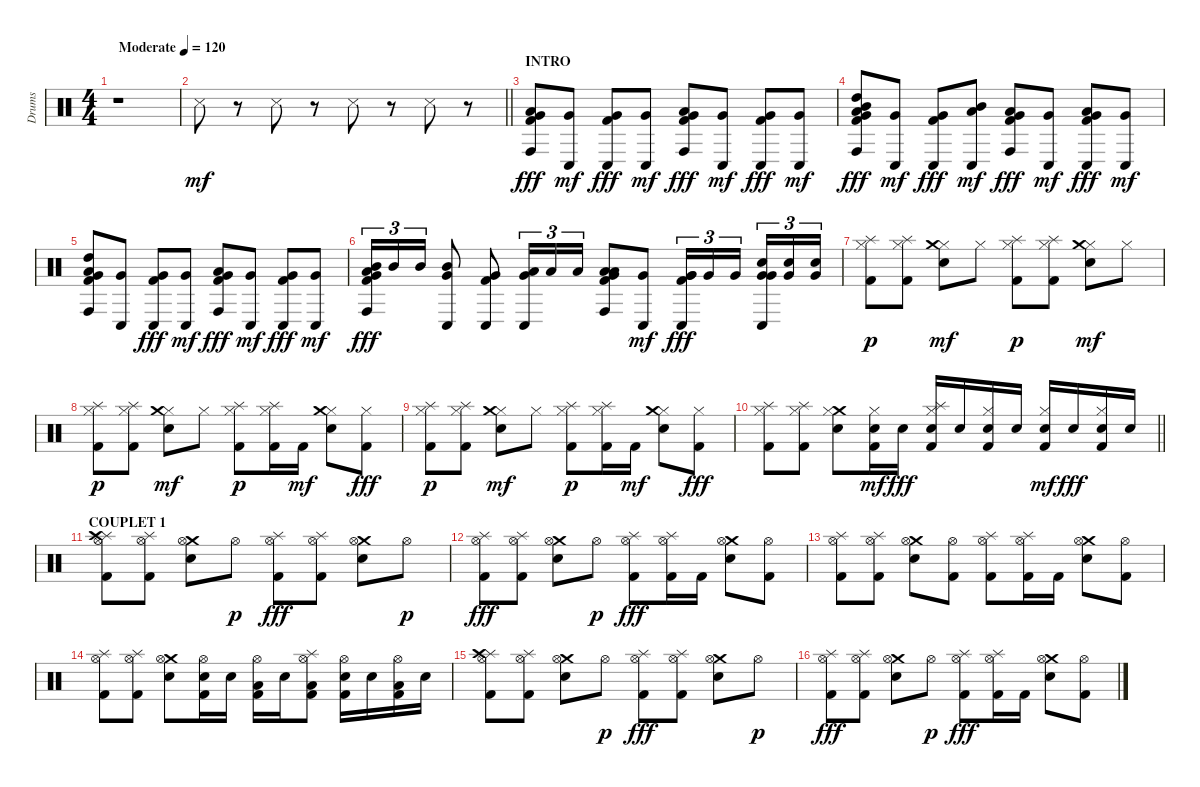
\track ("Drums" "Drums") {instrument percussion}
\staff {score}
\articulation defaults
\ts (4 4)
\tempo (120 "Moderate")
\clef neutral
\ks c
r.1{dy mf} |
\barLineRight lightlight "Snare (side stick) 3".8
r.8 "Snare (side stick) 3".8 r.8 "Snare (side stick) 3".8 r.8 "Snare (side stick) 3".8 r.8 |
\section ("" "INTRO")
("Conga high (hit)" "Kick (hit) 2" "Very Low Tom (hit)" "Low Floor Tom (hit)").8{dy fff} ("Conga low (hit)" "Very Low Tom (hit)").8{dy mf} ("Conga low (hit)" "Kick (hit) 2" "Very Low Tom (hit)").8{dy fff} ("Conga low (hit)" "Very Low Tom (hit)").8{dy mf} ("Conga high (hit)" "Kick (hit) 2" "Very Low Tom (hit)" "Low Floor Tom (hit)").8{dy fff} ("Conga low (hit)" "Very Low Tom (hit)").8{dy mf} ("Conga low (hit)" "Kick (hit) 2" "Very Low Tom (hit)").8{dy fff} ("Conga low (hit)" "Very Low Tom (hit)").8{dy mf} |
("Conga high (hit)" "Kick (hit) 2" "Mid Tom (hit)" "High Tom (hit)" "Very Low Tom (hit)" "Low Floor Tom (hit)").8{dy fff} ("Conga low (hit)" "Very Low Tom (hit)").8{dy mf} ("Conga low (hit)" "Kick (hit) 2" "Very Low Tom (hit)").8{dy fff} ("Mid Tom (hit)" "Low Tom (hit)" "Conga low (hit)").8{dy mf} ("Conga high (hit)" "Kick (hit) 2" "Very Low Tom (hit)" "Low Floor Tom (hit)").8{dy fff} ("Conga low (hit)" "Very Low Tom (hit)").8{dy mf} ("Low Tom (hit)" "Very Low Tom (hit)" "Conga low (hit)" "Kick (hit) 2").8{dy fff} ("Conga low (hit)" "Very Low Tom (hit)").8{dy mf} |
("Conga high (hit)" "Kick (hit) 2" "High Tom (hit)" "Very Low Tom (hit)" "Low Floor Tom (hit)").8 ("Conga low (hit)" "Very Low Tom (hit)").8 ("Conga low (hit)" "Kick (hit) 2" "Very Low Tom (hit)").8{dy fff} ("Conga low (hit)" "Very Low Tom (hit)").8{dy mf} ("Conga high (hit)" "Kick (hit) 2" "Very Low Tom (hit)" "Low Floor Tom (hit)").8{dy fff} ("Conga low (hit)" "Very Low Tom (hit)").8{dy mf} ("Conga low (hit)" "Kick (hit) 2" "Very Low Tom (hit)").8{dy fff} ("Conga low (hit)" "Very Low Tom (hit)").8{dy mf} |
("Conga high (hit)" "Kick (hit) 2" "Mid Tom (hit)" "Very Low Tom (hit)" "Low Floor Tom (hit)").16{tu (3 2) dy fff} "Mid Tom (hit)".16{tu (3 2)} "Mid Tom (hit)".16{tu (3 2)} ("Conga low (hit)" "Mid Tom (hit)" "Very Low Tom (hit)").8 ("Conga low (hit)" "Kick (hit) 2" "Very Low Tom (hit)").8 ("Conga low (hit)" "Low Tom (hit)" "Very Low Tom (hit)").16{tu (3 2)} "Low Tom (hit)".16{tu (3 2)} "Low Tom (hit)".16{tu (3 2)} ("Conga high (hit)" "Kick (hit) 2" "Low Tom (hit)" "Very Low Tom (hit)" "Low Floor Tom (hit)").8 ("Conga low (hit)" "Very Low Tom (hit)").8{dy mf} ("Conga low (hit)" "Kick (hit) 2" "Very Low Tom (hit)" "Very Low Tom (hit)").16{tu (3 2) dy fff} "Very Low Tom (hit)".16{tu (3 2)} "Very Low Tom (hit)".16{tu (3 2) beam splitsecondary} ("Conga low (hit)" "Electric Snare (hit)" "Very Low Tom (hit)" "Very Low Tom (hit)").16{tu (3 2)} ("Electric Snare (hit)" "Very Low Tom (hit)").16{tu (3 2)} ("Electric Snare (hit)" "Very Low Tom (hit)").16{tu (3 2)} |
("Hi-Hat (closed)" "Kick (hit) 2" "Splash (hit)").8{dy p} ("Hi-Hat (closed)" "Kick (hit) 2" "Splash (hit)").8 ("Hi-Hat (closed)" "Snare (hit) 2" "Crash medium (hit)").8{dy mf} "Hi-Hat (closed)".8 ("Hi-Hat (closed)" "Kick (hit) 2" "Splash (hit)").8{dy p} ("Hi-Hat (closed)" "Kick (hit) 2" "Splash (hit)").8 ("Hi-Hat (closed)" "Snare (hit) 2" "Crash medium (hit)").8{dy mf} "Hi-Hat (closed)".8 |
("Hi-Hat (closed)" "Kick (hit) 2" "Splash (hit)").8{dy p} ("Hi-Hat (closed)" "Kick (hit) 2" "Splash (hit)").8 ("Hi-Hat (closed)" "Snare (hit) 2" "Crash medium (hit)").8{dy mf} "Hi-Hat (closed)".8 ("Hi-Hat (closed)" "Kick (hit) 2" "Splash (hit)").8{dy p} ("Hi-Hat (closed)" "Kick (hit) 2" "Splash (hit)").16 "Kick (hit) 2".16{dy mf} ("Hi-Hat (closed)" "Snare (hit) 2" "Crash medium (hit)").8 ("Hi-Hat (closed)" "Kick (hit) 2").8{dy fff} |
("Hi-Hat (closed)" "Kick (hit) 2" "Splash (hit)").8{dy p} ("Hi-Hat (closed)" "Kick (hit) 2" "Splash (hit)").8 ("Hi-Hat (closed)" "Snare (hit) 2" "Crash medium (hit)").8{dy mf} "Hi-Hat (closed)".8 ("Hi-Hat (closed)" "Kick (hit) 2" "Splash (hit)").8{dy p} ("Hi-Hat (closed)" "Kick (hit) 2" "Splash (hit)").16 "Kick (hit) 2".16{dy mf} ("Hi-Hat (closed)" "Snare (hit) 2" "Crash medium (hit)").8 ("Hi-Hat (closed)" "Kick (hit) 2").8{dy fff} |
\barLineRight lightlight
("Splash (hit)" "Hi-Hat (closed)" "Kick (hit) 2").8 ("Splash (hit)" "Hi-Hat (closed)" "Kick (hit) 2").8 ("Crash medium (hit)" "Hi-Hat (closed)" "Snare (hit) 2").8 ("Snare (hit) 2" "Kick (hit) 2" "Hi-Hat (closed)").16{dy mf} "Snare (hit) 2".16{dy fff} ("Splash (hit)" "Snare (hit) 2" "Hi-Hat (closed)" "Kick (hit) 2").16 "Snare (hit) 2".16 ("Snare (hit) 2" "Hi-Hat (closed)" "Kick (hit) 2").16 "Snare (hit) 2".16 ("Snare (hit) 2" "Kick (hit) 2" "Hi-Hat (closed)").16{dy mf} "Snare (hit) 2".16{dy fff} ("Snare (hit) 2" "Hi-Hat (closed)" "Kick (hit) 2").16 "Snare (hit) 2".16 |
\section ("" "COUPLET 1")
("Splash (hit)" "Hi-Hat (open)" "Crash high (hit)" "Kick (hit) 2").8 ("Splash (hit)" "Hi-Hat (open)" "Kick (hit) 2").8 ("Crash medium (hit)" "Hi-Hat (open)" "Snare (hit) 2").8 "Hi-Hat (open)".8{dy p} ("Splash (hit)" "Hi-Hat (open)" "Kick (hit) 2").8{dy fff} ("Splash (hit)" "Hi-Hat (open)" "Kick (hit) 2").8 ("Crash medium (hit)" "Hi-Hat (open)" "Snare (hit) 2").8 "Hi-Hat (open)".8{dy p} |
("Splash (hit)" "Hi-Hat (open)" "Kick (hit) 2").8{dy fff} ("Splash (hit)" "Hi-Hat (open)" "Kick (hit) 2").8 ("Crash medium (hit)" "Hi-Hat (open)" "Snare (hit) 2").8 "Hi-Hat (open)".8{dy p} ("Splash (hit)" "Hi-Hat (open)" "Kick (hit) 2").8{dy fff} ("Splash (hit)" "Hi-Hat (open)" "Kick (hit) 2").16 "Kick (hit) 2".16 ("Crash medium (hit)" "Hi-Hat (open)" "Snare (hit) 2").8 ("Hi-Hat (open)" "Kick (hit) 2").8 |
("Splash (hit)" "Hi-Hat (open)" "Kick (hit) 2").8 ("Splash (hit)" "Hi-Hat (open)" "Kick (hit) 2").8 ("Crash medium (hit)" "Hi-Hat (open)" "Snare (hit) 2").8 ("Hi-Hat (open)" "Kick (hit) 2").8 ("Splash (hit)" "Hi-Hat (open)" "Kick (hit) 2").8 ("Splash (hit)" "Hi-Hat (open)" "Kick (hit) 2").16 "Kick (hit) 2".16 ("Crash medium (hit)" "Hi-Hat (open)" "Snare (hit) 2").8 ("Hi-Hat (open)" "Kick (hit) 2").8 |
("Splash (hit)" "Hi-Hat (open)" "Kick (hit) 2").8 ("Splash (hit)" "Hi-Hat (open)" "Kick (hit) 2").8 ("Crash medium (hit)" "Hi-Hat (open)" "Snare (hit) 2").8 ("Hi-Hat (open)" "Snare (hit) 2" "Kick (hit) 2").16 "Snare (hit) 2".16 ("Low Tom (hit)" "Hi-Hat (open)" "Kick (hit) 2").16 "Snare (hit) 2".16 ("Splash (hit)" "Low Tom (hit)" "Hi-Hat (open)" "Kick (hit) 2").8 ("Hi-Hat (open)" "Snare (hit) 2" "Kick (hit) 2").16 "Snare (hit) 2".16 ("Low Tom (hit)" "Hi-Hat (open)" "Kick (hit) 2").16 "Snare (hit) 2".16 |
("Splash (hit)" "Hi-Hat (open)" "Crash high (hit)" "Kick (hit) 2").8 ("Splash (hit)" "Hi-Hat (open)" "Kick (hit) 2").8 ("Crash medium (hit)" "Hi-Hat (open)" "Snare (hit) 2").8 "Hi-Hat (open)".8{dy p} ("Splash (hit)" "Hi-Hat (open)" "Kick (hit) 2").8{dy fff} ("Splash (hit)" "Hi-Hat (open)" "Kick (hit) 2").8 ("Crash medium (hit)" "Hi-Hat (open)" "Snare (hit) 2").8 "Hi-Hat (open)".8{dy p} |
("Splash (hit)" "Hi-Hat (open)" "Kick (hit) 2").8{dy fff} ("Splash (hit)" "Hi-Hat (open)" "Kick (hit) 2").8 ("Crash medium (hit)" "Hi-Hat (open)" "Snare (hit) 2").8 "Hi-Hat (open)".8{dy p} ("Splash (hit)" "Hi-Hat (open)" "Kick (hit) 2").8{dy fff} ("Splash (hit)" "Hi-Hat (open)" "Kick (hit) 2").16 "Kick (hit) 2".16 ("Crash medium (hit)" "Hi-Hat (open)" "Snare (hit) 2").8 ("Hi-Hat (open)" "Kick (hit) 2").8
